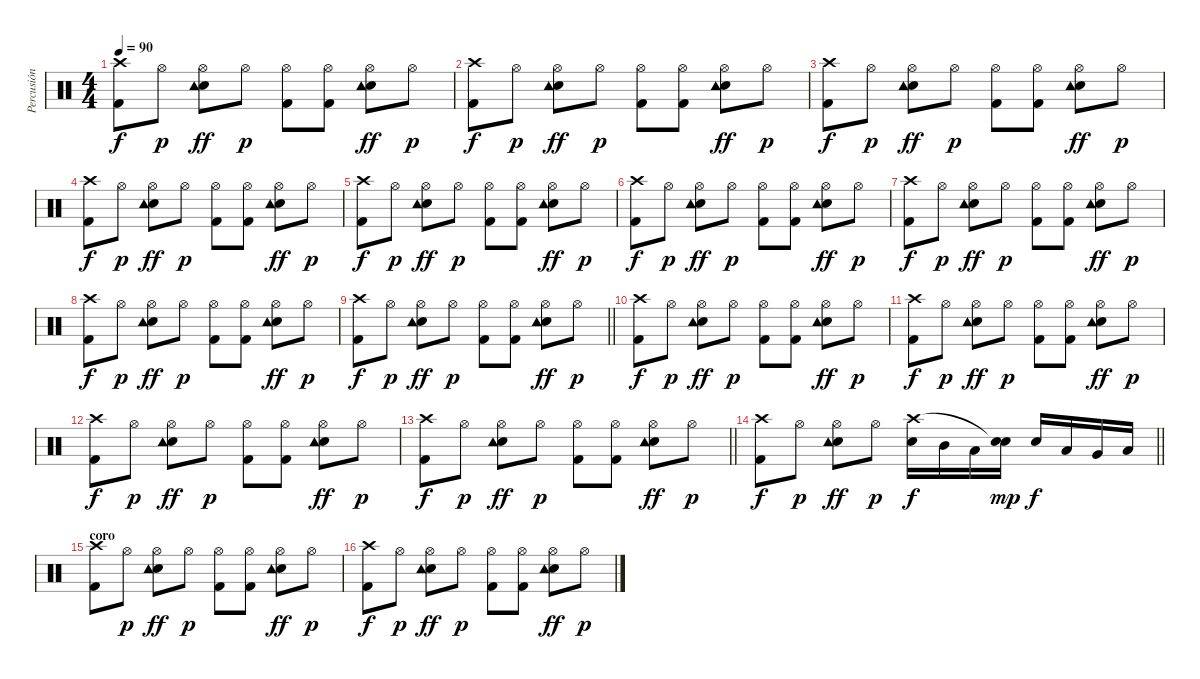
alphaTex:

\track ("Percusión" "Percusión") {instrument percussion}
\staff {score}
\articulation defaults
\ts (4 4)
\tempo 90
\clef neutral
\ks c
("Crash high (hit)" "Kick (hit) 2").8{dy f} "Hi-Hat (open)".8{dy p} ("Hi-Hat (open)" "Snare (hit) 2" "Tambourine (hit)").8{dy ff} "Hi-Hat (open)".8{dy p} ("Hi-Hat (open)" "Kick (hit) 2").8 ("Hi-Hat (open)" "Kick (hit) 2").8 ("Hi-Hat (open)" "Snare (hit) 2" "Tambourine (hit)").8{dy ff} "Hi-Hat (open)".8{dy p} |
("Crash high (hit)" "Kick (hit) 2").8{dy f} "Hi-Hat (open)".8{dy p} ("Hi-Hat (open)" "Snare (hit) 2" "Tambourine (hit)").8{dy ff} "Hi-Hat (open)".8{dy p} ("Hi-Hat (open)" "Kick (hit) 2").8 ("Hi-Hat (open)" "Kick (hit) 2").8 ("Hi-Hat (open)" "Snare (hit) 2" "Tambourine (hit)").8{dy ff} "Hi-Hat (open)".8{dy p} |
("Crash high (hit)" "Kick (hit) 2").8{dy f} "Hi-Hat (open)".8{dy p} ("Hi-Hat (open)" "Snare (hit) 2" "Tambourine (hit)").8{dy ff} "Hi-Hat (open)".8{dy p} ("Hi-Hat (open)" "Kick (hit) 2").8 ("Hi-Hat (open)" "Kick (hit) 2").8 ("Hi-Hat (open)" "Snare (hit) 2" "Tambourine (hit)").8{dy ff} "Hi-Hat (open)".8{dy p} |
("Crash high (hit)" "Kick (hit) 2").8{dy f} "Hi-Hat (open)".8{dy p} ("Hi-Hat (open)" "Snare (hit) 2" "Tambourine (hit)").8{dy ff} "Hi-Hat (open)".8{dy p} ("Hi-Hat (open)" "Kick (hit) 2").8 ("Hi-Hat (open)" "Kick (hit) 2").8 ("Hi-Hat (open)" "Snare (hit) 2" "Tambourine (hit)").8{dy ff} "Hi-Hat (open)".8{dy p} |
("Crash high (hit)" "Kick (hit) 2").8{dy f} "Hi-Hat (open)".8{dy p} ("Hi-Hat (open)" "Snare (hit) 2" "Tambourine (hit)").8{dy ff} "Hi-Hat (open)".8{dy p} ("Hi-Hat (open)" "Kick (hit) 2").8 ("Hi-Hat (open)" "Kick (hit) 2").8 ("Hi-Hat (open)" "Snare (hit) 2" "Tambourine (hit)").8{dy ff} "Hi-Hat (open)".8{dy p} |
("Crash high (hit)" "Kick (hit) 2").8{dy f} "Hi-Hat (open)".8{dy p} ("Hi-Hat (open)" "Snare (hit) 2" "Tambourine (hit)").8{dy ff} "Hi-Hat (open)".8{dy p} ("Hi-Hat (open)" "Kick (hit) 2").8 ("Hi-Hat (open)" "Kick (hit) 2").8 ("Hi-Hat (open)" "Snare (hit) 2" "Tambourine (hit)").8{dy ff} "Hi-Hat (open)".8{dy p} |
("Crash high (hit)" "Kick (hit) 2").8{dy f} "Hi-Hat (open)".8{dy p} ("Hi-Hat (open)" "Snare (hit) 2" "Tambourine (hit)").8{dy ff} "Hi-Hat (open)".8{dy p} ("Hi-Hat (open)" "Kick (hit) 2").8 ("Hi-Hat (open)" "Kick (hit) 2").8 ("Hi-Hat (open)" "Snare (hit) 2" "Tambourine (hit)").8{dy ff} "Hi-Hat (open)".8{dy p} |
("Crash high (hit)" "Kick (hit) 2").8{dy f} "Hi-Hat (open)".8{dy p} ("Hi-Hat (open)" "Snare (hit) 2" "Tambourine (hit)").8{dy ff} "Hi-Hat (open)".8{dy p} ("Hi-Hat (open)" "Kick (hit) 2").8 ("Hi-Hat (open)" "Kick (hit) 2").8 ("Hi-Hat (open)" "Snare (hit) 2" "Tambourine (hit)").8{dy ff} "Hi-Hat (open)".8{dy p} |
\barLineRight lightlight
("Crash high (hit)" "Kick (hit) 2").8{dy f} "Hi-Hat (open)".8{dy p} ("Hi-Hat (open)" "Snare (hit) 2" "Tambourine (hit)").8{dy ff} "Hi-Hat (open)".8{dy p} ("Hi-Hat (open)" "Kick (hit) 2").8 ("Hi-Hat (open)" "Kick (hit) 2").8 ("Hi-Hat (open)" "Snare (hit) 2" "Tambourine (hit)").8{dy ff} "Hi-Hat (open)".8{dy p} |
("Crash high (hit)" "Kick (hit) 2").8{dy f} "Hi-Hat (open)".8{dy p} ("Hi-Hat (open)" "Snare (hit) 2" "Tambourine (hit)").8{dy ff} "Hi-Hat (open)".8{dy p} ("Hi-Hat (open)" "Kick (hit) 2").8 ("Hi-Hat (open)" "Kick (hit) 2").8 ("Hi-Hat (open)" "Snare (hit) 2" "Tambourine (hit)").8{dy ff} "Hi-Hat (open)".8{dy p} |
("Crash high (hit)" "Kick (hit) 2").8{dy f} "Hi-Hat (open)".8{dy p} ("Hi-Hat (open)" "Snare (hit) 2" "Tambourine (hit)").8{dy ff} "Hi-Hat (open)".8{dy p} ("Hi-Hat (open)" "Kick (hit) 2").8 ("Hi-Hat (open)" "Kick (hit) 2").8 ("Hi-Hat (open)" "Snare (hit) 2" "Tambourine (hit)").8{dy ff} "Hi-Hat (open)".8{dy p} |
("Crash high (hit)" "Kick (hit) 2").8{dy f} "Hi-Hat (open)".8{dy p} ("Hi-Hat (open)" "Snare (hit) 2" "Tambourine (hit)").8{dy ff} "Hi-Hat (open)".8{dy p} ("Hi-Hat (open)" "Kick (hit) 2").8 ("Hi-Hat (open)" "Kick (hit) 2").8 ("Hi-Hat (open)" "Snare (hit) 2" "Tambourine (hit)").8{dy ff} "Hi-Hat (open)".8{dy p} |
\barLineRight lightlight
("Crash high (hit)" "Kick (hit) 2").8{dy f} "Hi-Hat (open)".8{dy p} ("Hi-Hat (open)" "Snare (hit) 2" "Tambourine (hit)").8{dy ff} "Hi-Hat (open)".8{dy p} ("Hi-Hat (open)" "Kick (hit) 2").8 ("Hi-Hat (open)" "Kick (hit) 2").8 ("Hi-Hat (open)" "Snare (hit) 2" "Tambourine (hit)").8{dy ff} "Hi-Hat (open)".8{dy p} |
\barLineRight lightlight
("Crash high (hit)" "Kick (hit) 2").8{dy f} "Hi-Hat (open)".8{dy p} ("Hi-Hat (open)" "Snare (hit) 2" "Tambourine (hit)").8{dy ff} "Hi-Hat (open)".8{dy p} ("Snare (hit) 2" "Crash high (hit)").16{dy f} "Mid Tom (hit)".16 "Low Tom (hit)".16 ("Snare (hit) 2" "Snare (hit)"{t}).16{dy mp} "Snare (hit) 2".16{dy f} "Low Tom (hit)".16 "Very Low Tom (hit)".16 "Low Floor Tom (hit)".16 |
\section ("" "coro")
("Crash high (hit)" "Kick (hit) 2").8 "Hi-Hat (open)".8{dy p} ("Hi-Hat (open)" "Snare (hit) 2" "Tambourine (hit)").8{dy ff} "Hi-Hat (open)".8{dy p} ("Hi-Hat (open)" "Kick (hit) 2").8 ("Hi-Hat (open)" "Kick (hit) 2").8 ("Hi-Hat (open)" "Snare (hit) 2" "Tambourine (hit)").8{dy ff} "Hi-Hat (open)".8{dy p} |
("Crash high (hit)" "Kick (hit) 2").8{dy f} "Hi-Hat (open)".8{dy p} ("Hi-Hat (open)" "Snare (hit) 2" "Tambourine (hit)").8{dy ff} "Hi-Hat (open)".8{dy p} ("Hi-Hat (open)" "Kick (hit) 2").8 ("Hi-Hat (open)" "Kick (hit) 2").8 ("Hi-Hat (open)" "Snare (hit) 2" "Tambourine (hit)").8{dy ff} "Hi-Hat (open)".8{dy p}
